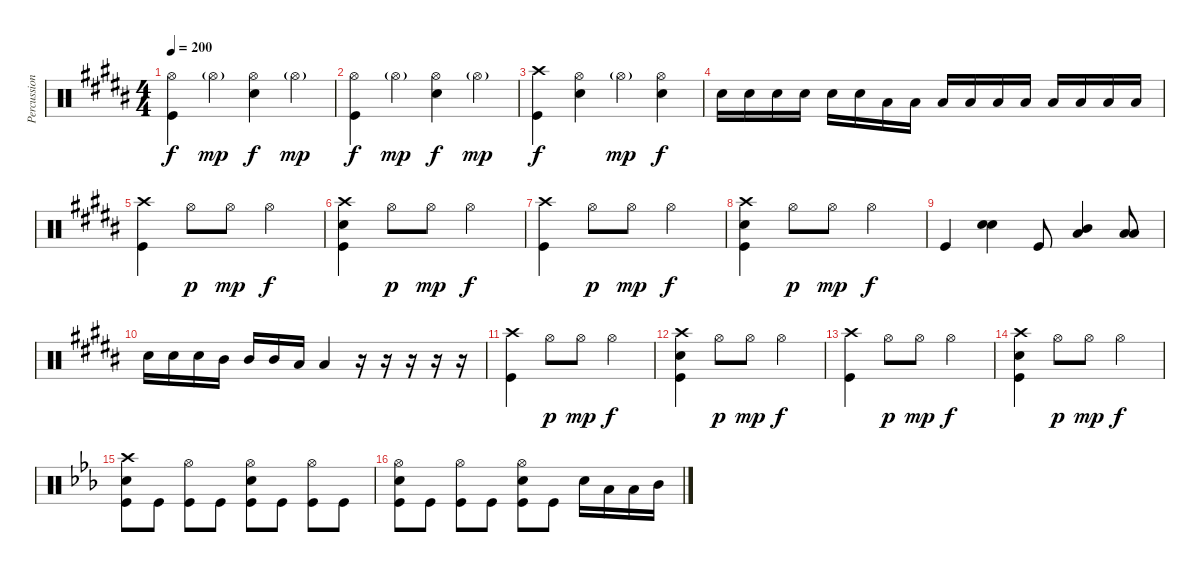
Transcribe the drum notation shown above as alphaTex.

\track ("Percussion" "Percussion") {instrument percussion}
\staff {score}
\articulation defaults
\ts (4 4)
\tempo 200
\clef neutral
\ks b
("Hi-Hat (open)" "Kick (hit)").4{dy f} "Hi-Hat (open)"{g}.4{dy mp} ("Hi-Hat (open)" "Snare (hit) 2").4{dy f} "Hi-Hat (open)"{g}.4{dy mp} |
("Hi-Hat (open)" "Kick (hit)").4{dy f} "Hi-Hat (open)"{g}.4{dy mp} ("Hi-Hat (open)" "Snare (hit) 2").4{dy f} "Hi-Hat (open)"{g}.4{dy mp} |
("Crash high (hit)" "Kick (hit)").4{dy f} ("Hi-Hat (open)" "Snare (hit) 2").4 "Hi-Hat (open)"{g}.4{dy mp} ("Hi-Hat (open)" "Snare (hit) 2").4{dy f} |
"Snare (hit) 2".16 "Snare (hit) 2".16 "Snare (hit) 2".16 "Snare (hit) 2".16 "Snare (hit) 2".16 "Snare (hit) 2".16 "Low Tom (hit)".16 "Low Tom (hit)".16 "Low Tom (hit)".16 "Low Tom (hit)".16 "Low Floor Tom (hit)".16 "Low Floor Tom (hit)".16 "Low Floor Tom (hit)".16 "Low Floor Tom (hit)".16 "Low Floor Tom (hit)".16 "Low Floor Tom (hit)".16 |
("Crash high (hit)" "Kick (hit)").4 "Hi-Hat (open)".8{dy p} "Hi-Hat (open)".8{dy mp} "Hi-Hat (open)".2{dy f} |
("Crash high (hit)" "Snare (hit) 2" "Kick (hit)").4 "Hi-Hat (open)".8{dy p} "Hi-Hat (open)".8{dy mp} "Hi-Hat (open)".2{dy f} |
("Crash high (hit)" "Kick (hit)").4 "Hi-Hat (open)".8{dy p} "Hi-Hat (open)".8{dy mp} "Hi-Hat (open)".2{dy f} |
("Crash high (hit)" "Snare (hit) 2" "Kick (hit)").4 "Hi-Hat (open)".8{dy p} "Hi-Hat (open)".8{dy mp} "Hi-Hat (open)".2{dy f} |
"Kick (hit)".4 ("Snare (hit) 2" "Electric Snare (hit)").4 "Kick (hit)".8 ("Low Tom (hit)" "Mid Tom (hit)").4 ("Low Tom (hit)" "Low Floor Tom (hit)").8 |
"Snare (hit) 2".16 "Snare (hit) 2".16 "Snare (hit) 2".16 "Mid Tom (hit)".16 "Mid Tom (hit)".16 "Mid Tom (hit)".16 "Low Tom (hit)".16 "Low Floor Tom (hit)".4 r.16 r.16 r.16 r.16 r.16 |
("Crash high (hit)" "Kick (hit)").4 "Hi-Hat (open)".8{dy p} "Hi-Hat (open)".8{dy mp} "Hi-Hat (open)".2{dy f} |
("Crash high (hit)" "Snare (hit) 2" "Kick (hit)").4 "Hi-Hat (open)".8{dy p} "Hi-Hat (open)".8{dy mp} "Hi-Hat (open)".2{dy f} |
("Crash high (hit)" "Kick (hit)").4 "Hi-Hat (open)".8{dy p} "Hi-Hat (open)".8{dy mp} "Hi-Hat (open)".2{dy f} |
("Crash high (hit)" "Snare (hit) 2" "Kick (hit)").4 "Hi-Hat (open)".8{dy p} "Hi-Hat (open)".8{dy mp} "Hi-Hat (open)".2{dy f} |
\ks eb
("Crash high (hit)" "Snare (hit) 2" "Kick (hit)").8 "Kick (hit)".8 ("Hi-Hat (open)" "Kick (hit)").8 "Kick (hit)".8 ("Hi-Hat (open)" "Snare (hit) 2" "Kick (hit)").8 "Kick (hit)".8 ("Hi-Hat (open)" "Kick (hit)").8 "Kick (hit)".8 |
("Hi-Hat (open)" "Snare (hit) 2" "Kick (hit)").8 "Kick (hit)".8 ("Hi-Hat (open)" "Kick (hit)").8 "Kick (hit)".8 ("Hi-Hat (open)" "Snare (hit) 2" "Kick (hit)").8 "Kick (hit)".8 "Snare (hit) 2".16 "Low Tom (hit)".16 "Low Tom (hit)".16 "Mid Tom (hit)".16
